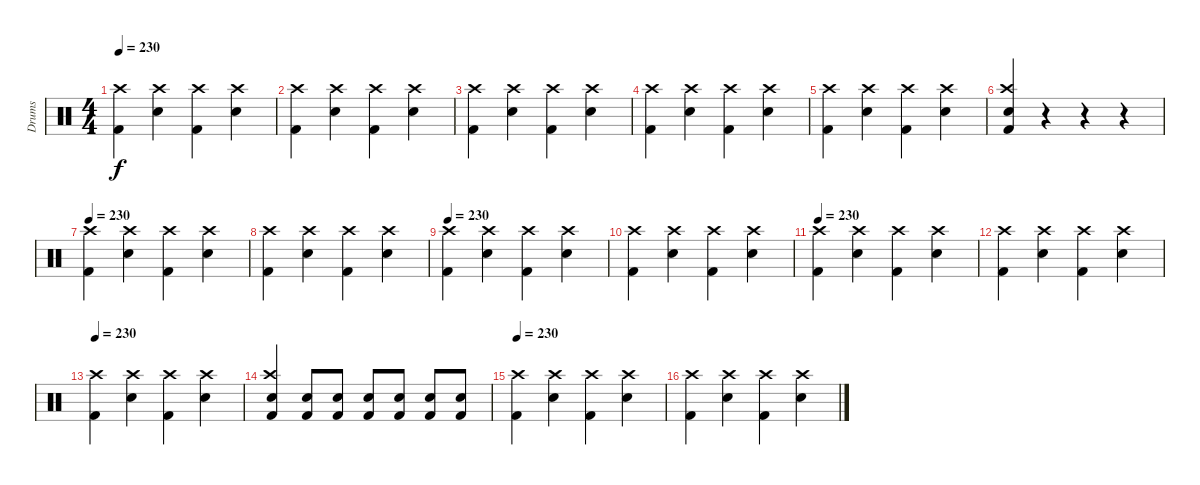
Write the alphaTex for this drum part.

\track ("Drums" "Drums") {instrument percussion}
\staff {score}
\articulation defaults
\ts (4 4)
\tempo 230
\clef neutral
\ks c
("Kick (hit) 2" "Crash high (hit)").4{dy f} ("Snare (hit) 2" "Crash high (hit)").4 ("Kick (hit) 2" "Crash high (hit)").4 ("Snare (hit) 2" "Crash high (hit)").4 |
("Kick (hit) 2" "Crash high (hit)").4 ("Snare (hit) 2" "Crash high (hit)").4 ("Kick (hit) 2" "Crash high (hit)").4 ("Snare (hit) 2" "Crash high (hit)").4 |
("Kick (hit) 2" "Crash high (hit)").4 ("Snare (hit) 2" "Crash high (hit)").4 ("Kick (hit) 2" "Crash high (hit)").4 ("Snare (hit) 2" "Crash high (hit)").4 |
("Kick (hit) 2" "Crash high (hit)").4 ("Snare (hit) 2" "Crash high (hit)").4 ("Kick (hit) 2" "Crash high (hit)").4 ("Snare (hit) 2" "Crash high (hit)").4 |
("Kick (hit) 2" "Crash high (hit)").4 ("Snare (hit) 2" "Crash high (hit)").4 ("Kick (hit) 2" "Crash high (hit)").4 ("Snare (hit) 2" "Crash high (hit)").4 |
("Snare (hit) 2" "Kick (hit) 2" "Crash high (hit)").4 r.4 r.4 r.4 |
\tempo 230
("Kick (hit) 2" "Crash high (hit)").4 ("Snare (hit) 2" "Crash high (hit)").4 ("Kick (hit) 2" "Crash high (hit)").4 ("Snare (hit) 2" "Crash high (hit)").4 |
("Kick (hit) 2" "Crash high (hit)").4 ("Snare (hit) 2" "Crash high (hit)").4 ("Kick (hit) 2" "Crash high (hit)").4 ("Snare (hit) 2" "Crash high (hit)").4 |
\tempo 230
("Kick (hit) 2" "Crash high (hit)").4 ("Snare (hit) 2" "Crash high (hit)").4 ("Kick (hit) 2" "Crash high (hit)").4 ("Snare (hit) 2" "Crash high (hit)").4 |
("Kick (hit) 2" "Crash high (hit)").4 ("Snare (hit) 2" "Crash high (hit)").4 ("Kick (hit) 2" "Crash high (hit)").4 ("Snare (hit) 2" "Crash high (hit)").4 |
\tempo 230
("Kick (hit) 2" "Crash high (hit)").4 ("Snare (hit) 2" "Crash high (hit)").4 ("Kick (hit) 2" "Crash high (hit)").4 ("Snare (hit) 2" "Crash high (hit)").4 |
("Kick (hit) 2" "Crash high (hit)").4 ("Snare (hit) 2" "Crash high (hit)").4 ("Kick (hit) 2" "Crash high (hit)").4 ("Snare (hit) 2" "Crash high (hit)").4 |
\tempo 230
("Kick (hit) 2" "Crash high (hit)").4 ("Snare (hit) 2" "Crash high (hit)").4 ("Kick (hit) 2" "Crash high (hit)").4 ("Snare (hit) 2" "Crash high (hit)").4 |
("Snare (hit) 2" "Kick (hit) 2" "Crash high (hit)").4 ("Snare (hit) 2" "Kick (hit) 2").8 ("Snare (hit) 2" "Kick (hit) 2").8 ("Snare (hit) 2" "Kick (hit) 2").8 ("Snare (hit) 2" "Kick (hit) 2").8 ("Snare (hit) 2" "Kick (hit) 2").8 ("Snare (hit) 2" "Kick (hit) 2").8 |
\tempo 230
("Kick (hit) 2" "Crash high (hit)").4 ("Snare (hit) 2" "Crash high (hit)").4 ("Kick (hit) 2" "Crash high (hit)").4 ("Snare (hit) 2" "Crash high (hit)").4 |
("Kick (hit) 2" "Crash high (hit)").4 ("Snare (hit) 2" "Crash high (hit)").4 ("Kick (hit) 2" "Crash high (hit)").4 ("Snare (hit) 2" "Crash high (hit)").4
